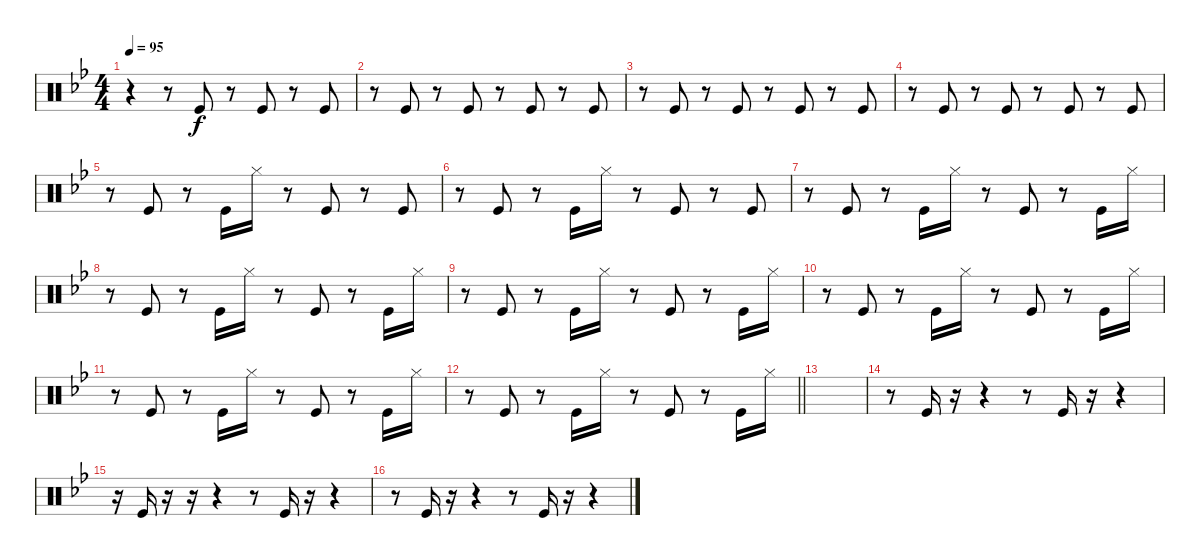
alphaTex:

\track "" {instrument percussion}
\staff {score}
\articulation defaults
\ts (4 4)
\tempo 95
\clef neutral
\ks bb
r.4{dy f} r.8 "Kick (hit)".8 r.8 "Kick (hit)".8 r.8 "Kick (hit)".8 |
r.8 "Kick (hit)".8 r.8 "Kick (hit)".8 r.8 "Kick (hit)".8 r.8 "Kick (hit)".8 |
r.8 "Kick (hit)".8 r.8 "Kick (hit)".8 r.8 "Kick (hit)".8 r.8 "Kick (hit)".8 |
r.8 "Kick (hit)".8 r.8 "Kick (hit)".8 r.8 "Kick (hit)".8 r.8 "Kick (hit)".8 |
r.8 "Kick (hit)".8 r.8 "Kick (hit)".16 "Hi-Hat (closed)".16 r.8 "Kick (hit)".8 r.8 "Kick (hit)".8 |
r.8 "Kick (hit)".8 r.8 "Kick (hit)".16 "Hi-Hat (closed)".16 r.8 "Kick (hit)".8 r.8 "Kick (hit)".8 |
r.8 "Kick (hit)".8 r.8 "Kick (hit)".16 "Hi-Hat (closed)".16 r.8 "Kick (hit)".8 r.8 "Kick (hit)".16 "Hi-Hat (closed)".16 |
r.8 "Kick (hit)".8 r.8 "Kick (hit)".16 "Hi-Hat (closed)".16 r.8 "Kick (hit)".8 r.8 "Kick (hit)".16 "Hi-Hat (closed)".16 |
r.8 "Kick (hit)".8 r.8 "Kick (hit)".16 "Hi-Hat (closed)".16 r.8 "Kick (hit)".8 r.8 "Kick (hit)".16 "Hi-Hat (closed)".16 |
r.8 "Kick (hit)".8 r.8 "Kick (hit)".16 "Hi-Hat (closed)".16 r.8 "Kick (hit)".8 r.8 "Kick (hit)".16 "Hi-Hat (closed)".16 |
r.8 "Kick (hit)".8 r.8 "Kick (hit)".16 "Hi-Hat (closed)".16 r.8 "Kick (hit)".8 r.8 "Kick (hit)".16 "Hi-Hat (closed)".16 |
\barLineRight lightlight
r.8 "Kick (hit)".8 r.8 "Kick (hit)".16 "Hi-Hat (closed)".16 r.8 "Kick (hit)".8 r.8 "Kick (hit)".16 "Hi-Hat (closed)".16 |
|
r.8 "Kick (hit)".16 r.16 r.4 r.8 "Kick (hit)".16 r.16 r.4 |
r.16 "Kick (hit)".16 r.16 r.16 r.4 r.8 "Kick (hit)".16 r.16 r.4 |
r.8 "Kick (hit)".16 r.16 r.4 r.8 "Kick (hit)".16 r.16 r.4
